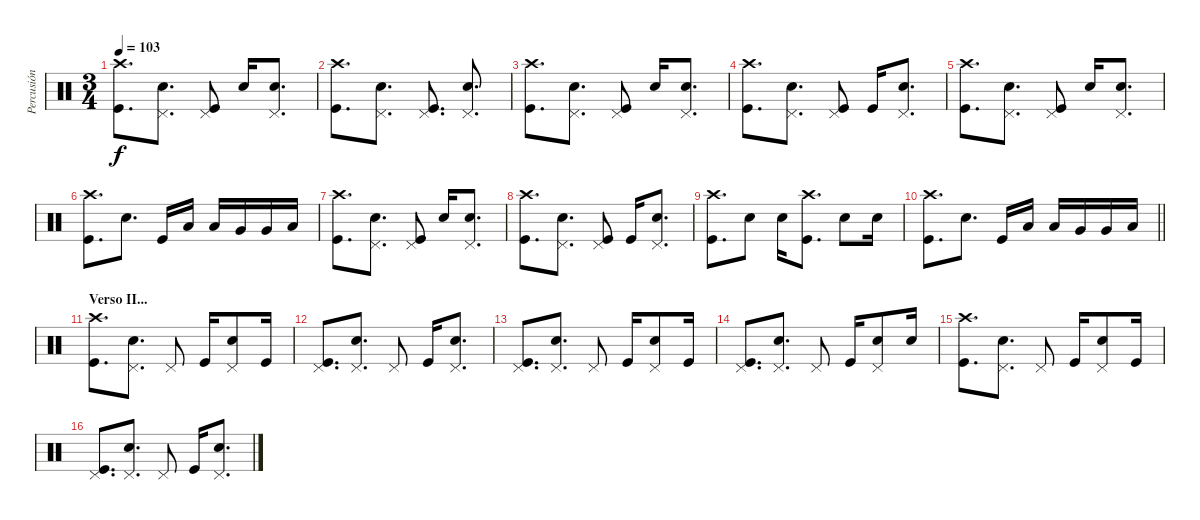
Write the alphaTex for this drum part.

\track ("Percusión" "Percusión") {instrument percussion}
\staff {score}
\articulation defaults
\ts (3 4)
\tempo 103
\clef neutral
\ks c
("Crash high (hit)" "Kick (hit)").8{d dy f} ("Pedal Hi-Hat (hit)" "Snare (hit) 2").8{d} ("Pedal Hi-Hat (hit)" "Kick (hit)").8 "Snare (hit) 2".16 ("Pedal Hi-Hat (hit)" "Snare (hit) 2").8{d} |
("Crash high (hit)" "Kick (hit)").8{d} ("Pedal Hi-Hat (hit)" "Snare (hit) 2").8{d} ("Pedal Hi-Hat (hit)" "Kick (hit)").8{d} ("Pedal Hi-Hat (hit)" "Snare (hit) 2").8{d} |
("Crash high (hit)" "Kick (hit)").8{d} ("Pedal Hi-Hat (hit)" "Snare (hit) 2").8{d} ("Pedal Hi-Hat (hit)" "Kick (hit)").8 "Snare (hit) 2".16 ("Pedal Hi-Hat (hit)" "Snare (hit) 2").8{d} |
("Crash high (hit)" "Kick (hit)").8{d} ("Pedal Hi-Hat (hit)" "Snare (hit) 2").8{d} ("Pedal Hi-Hat (hit)" "Kick (hit)").8 "Kick (hit)".16 ("Pedal Hi-Hat (hit)" "Snare (hit) 2").8{d} |
("Crash high (hit)" "Kick (hit)").8{d} ("Pedal Hi-Hat (hit)" "Snare (hit) 2").8{d} ("Pedal Hi-Hat (hit)" "Kick (hit)").8 "Snare (hit) 2".16 ("Pedal Hi-Hat (hit)" "Snare (hit) 2").8{d} |
("Crash high (hit)" "Kick (hit)").8{d} "Snare (hit) 2".8{d} "Kick (hit)".16 "Low Tom (hit)".16 "Low Tom (hit)".16 "Very Low Tom (hit)".16 "Very Low Tom (hit)".16 "Low Floor Tom (hit)".16 |
("Crash high (hit)" "Kick (hit)").8{d} ("Pedal Hi-Hat (hit)" "Snare (hit) 2").8{d} ("Pedal Hi-Hat (hit)" "Kick (hit)").8 "Snare (hit) 2".16 ("Pedal Hi-Hat (hit)" "Snare (hit) 2").8{d} |
("Crash high (hit)" "Kick (hit)").8{d} ("Pedal Hi-Hat (hit)" "Snare (hit) 2").8{d} ("Pedal Hi-Hat (hit)" "Kick (hit)").8 "Kick (hit)".16 ("Pedal Hi-Hat (hit)" "Snare (hit) 2").8{d} |
("Crash high (hit)" "Kick (hit)").8{d} "Snare (hit) 2".8 "Snare (hit) 2".16 ("Crash high (hit)" "Kick (hit)").8{d} "Snare (hit) 2".8 "Snare (hit) 2".16 |
\barLineRight lightlight
("Crash high (hit)" "Kick (hit)").8{d} "Snare (hit) 2".8{d} "Kick (hit)".16 "Low Tom (hit)".16 "Low Tom (hit)".16 "Very Low Tom (hit)".16 "Very Low Tom (hit)".16 "Low Floor Tom (hit)".16 |
\section ("" "Verso II...")
("Crash high (hit)" "Kick (hit)").8{d} ("Pedal Hi-Hat (hit)" "Snare (hit) 2").8{d} "Pedal Hi-Hat (hit)".8 "Kick (hit)".16 ("Pedal Hi-Hat (hit)" "Snare (hit) 2").8 "Kick (hit)".16 |
("Pedal Hi-Hat (hit)" "Kick (hit)").8{d} ("Pedal Hi-Hat (hit)" "Snare (hit) 2").8{d} "Pedal Hi-Hat (hit)".8 "Kick (hit)".16 ("Pedal Hi-Hat (hit)" "Snare (hit) 2").8{d} |
("Pedal Hi-Hat (hit)" "Kick (hit)").8{d} ("Pedal Hi-Hat (hit)" "Snare (hit) 2").8{d} "Pedal Hi-Hat (hit)".8 "Kick (hit)".16 ("Pedal Hi-Hat (hit)" "Snare (hit) 2").8 "Kick (hit)".16 |
("Pedal Hi-Hat (hit)" "Kick (hit)").8{d} ("Pedal Hi-Hat (hit)" "Snare (hit) 2").8{d} "Pedal Hi-Hat (hit)".8 "Kick (hit)".16 ("Pedal Hi-Hat (hit)" "Snare (hit) 2").8 "Snare (hit) 2".16 |
("Crash high (hit)" "Kick (hit)").8{d} ("Pedal Hi-Hat (hit)" "Snare (hit) 2").8{d} "Pedal Hi-Hat (hit)".8 "Kick (hit)".16 ("Pedal Hi-Hat (hit)" "Snare (hit) 2").8 "Kick (hit)".16 |
("Pedal Hi-Hat (hit)" "Kick (hit)").8{d} ("Pedal Hi-Hat (hit)" "Snare (hit) 2").8{d} "Pedal Hi-Hat (hit)".8 "Kick (hit)".16 ("Pedal Hi-Hat (hit)" "Snare (hit) 2").8{d}
